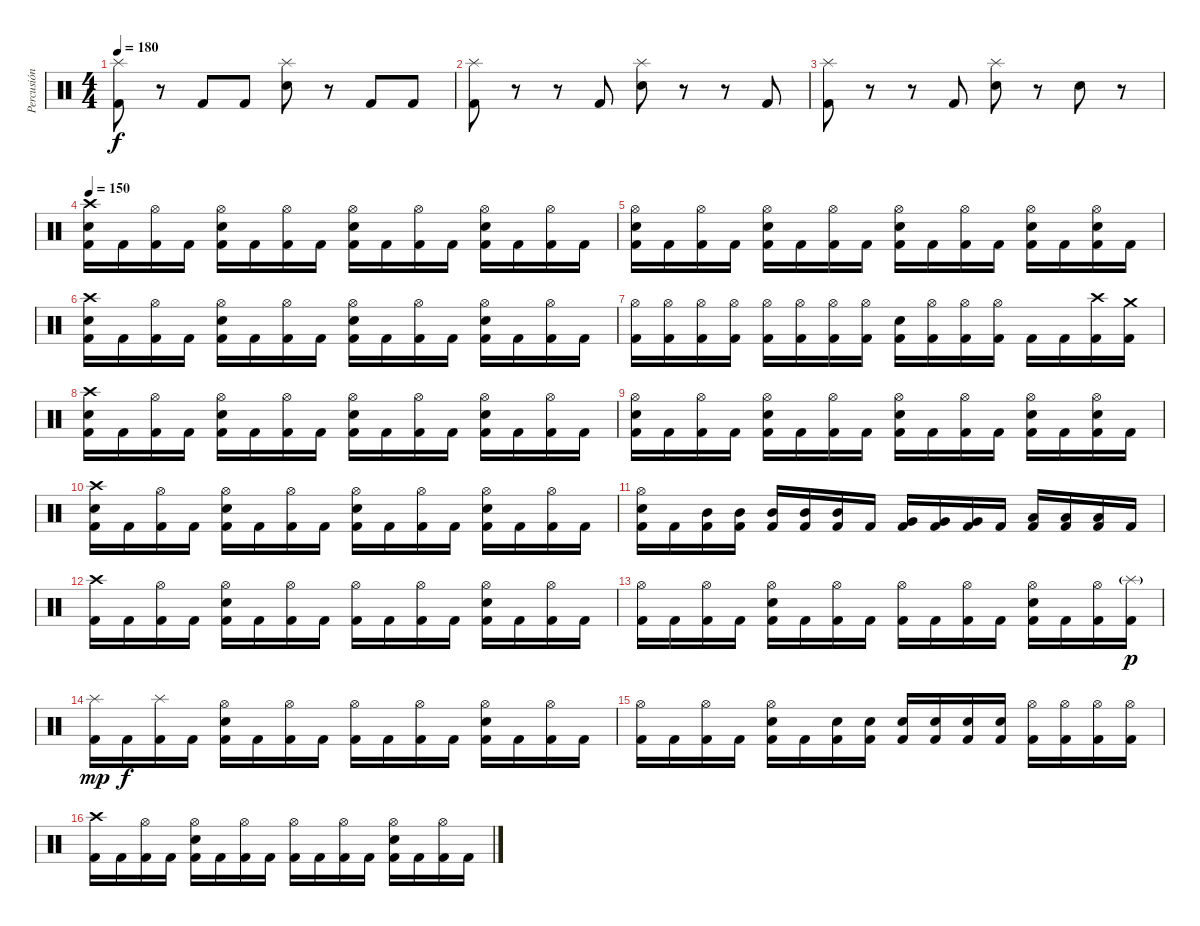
\track ("Percusión" "Percusión") {instrument percussion}
\staff {score}
\articulation defaults
\ts (4 4)
\tempo 180
\clef neutral
\ks c
("Splash (hit)" "Kick (hit) 2").8{dy f} r.8 "Kick (hit) 2".8 "Kick (hit) 2".8 ("Splash (hit)" "Snare (hit) 2").8 r.8 "Kick (hit) 2".8 "Kick (hit) 2".8 |
("Splash (hit)" "Kick (hit) 2").8 r.8 r.8 "Kick (hit) 2".8 ("Splash (hit)" "Snare (hit) 2").8 r.8 r.8 "Kick (hit) 2".8 |
("Splash (hit)" "Kick (hit) 2").8 r.8 r.8 "Kick (hit) 2".8 ("Splash (hit)" "Snare (hit) 2").8 r.8 "Snare (hit) 2".8 r.8 |
\tempo 150
("Crash high (hit)" "Snare (hit) 2" "Kick (hit) 2").16 "Kick (hit) 2".16 ("Hi-Hat (open)" "Kick (hit) 2").16 "Kick (hit) 2".16 ("Hi-Hat (open)" "Snare (hit) 2" "Kick (hit) 2").16 "Kick (hit) 2".16 ("Hi-Hat (open)" "Kick (hit) 2").16 "Kick (hit) 2".16 ("Hi-Hat (open)" "Snare (hit) 2" "Kick (hit) 2").16 "Kick (hit) 2".16 ("Hi-Hat (open)" "Kick (hit) 2").16 "Kick (hit) 2".16 ("Hi-Hat (open)" "Snare (hit) 2" "Kick (hit) 2").16 "Kick (hit) 2".16 ("Hi-Hat (open)" "Kick (hit) 2").16 "Kick (hit) 2".16 |
("Hi-Hat (open)" "Snare (hit) 2" "Kick (hit) 2").16 "Kick (hit) 2".16 ("Hi-Hat (open)" "Kick (hit) 2").16 "Kick (hit) 2".16 ("Hi-Hat (open)" "Snare (hit) 2" "Kick (hit) 2").16 "Kick (hit) 2".16 ("Hi-Hat (open)" "Kick (hit) 2").16 "Kick (hit) 2".16 ("Hi-Hat (open)" "Snare (hit) 2" "Kick (hit) 2").16 "Kick (hit) 2".16 ("Hi-Hat (open)" "Kick (hit) 2").16 "Kick (hit) 2".16 ("Hi-Hat (open)" "Snare (hit) 2" "Kick (hit) 2").16 "Kick (hit) 2".16 ("Hi-Hat (open)" "Snare (hit) 2" "Kick (hit) 2").16 "Kick (hit) 2".16 |
("Crash high (hit)" "Snare (hit) 2" "Kick (hit) 2").16 "Kick (hit) 2".16 ("Hi-Hat (open)" "Kick (hit) 2").16 "Kick (hit) 2".16 ("Hi-Hat (open)" "Snare (hit) 2" "Kick (hit) 2").16 "Kick (hit) 2".16 ("Hi-Hat (open)" "Kick (hit) 2").16 "Kick (hit) 2".16 ("Hi-Hat (open)" "Snare (hit) 2" "Kick (hit) 2").16 "Kick (hit) 2".16 ("Hi-Hat (open)" "Kick (hit) 2").16 "Kick (hit) 2".16 ("Hi-Hat (open)" "Snare (hit) 2" "Kick (hit) 2").16 "Kick (hit) 2".16 ("Hi-Hat (open)" "Kick (hit) 2").16 "Kick (hit) 2".16 |
("Hi-Hat (open)" "Kick (hit) 2").16 ("Hi-Hat (open)" "Kick (hit) 2").16 ("Hi-Hat (open)" "Kick (hit) 2").16 ("Hi-Hat (open)" "Kick (hit) 2").16 ("Hi-Hat (open)" "Kick (hit) 2").16 ("Hi-Hat (open)" "Kick (hit) 2").16 ("Hi-Hat (open)" "Kick (hit) 2").16 ("Hi-Hat (open)" "Kick (hit) 2").16 ("Snare (hit) 2" "Kick (hit) 2").16 ("Hi-Hat (open)" "Kick (hit) 2").16 ("Hi-Hat (open)" "Kick (hit) 2").16 ("Hi-Hat (open)" "Kick (hit) 2").16 "Kick (hit) 2".16 "Kick (hit) 2".16 ("Crash high (hit)" "Kick (hit) 2").16 ("Crash medium (hit)" "Kick (hit) 2").16 |
("Crash high (hit)" "Snare (hit) 2" "Kick (hit) 2").16 "Kick (hit) 2".16 ("Hi-Hat (open)" "Kick (hit) 2").16 "Kick (hit) 2".16 ("Hi-Hat (open)" "Snare (hit) 2" "Kick (hit) 2").16 "Kick (hit) 2".16 ("Hi-Hat (open)" "Kick (hit) 2").16 "Kick (hit) 2".16 ("Hi-Hat (open)" "Snare (hit) 2" "Kick (hit) 2").16 "Kick (hit) 2".16 ("Hi-Hat (open)" "Kick (hit) 2").16 "Kick (hit) 2".16 ("Hi-Hat (open)" "Snare (hit) 2" "Kick (hit) 2").16 "Kick (hit) 2".16 ("Hi-Hat (open)" "Kick (hit) 2").16 "Kick (hit) 2".16 |
("Hi-Hat (open)" "Snare (hit) 2" "Kick (hit) 2").16 "Kick (hit) 2".16 ("Hi-Hat (open)" "Kick (hit) 2").16 "Kick (hit) 2".16 ("Hi-Hat (open)" "Snare (hit) 2" "Kick (hit) 2").16 "Kick (hit) 2".16 ("Hi-Hat (open)" "Kick (hit) 2").16 "Kick (hit) 2".16 ("Hi-Hat (open)" "Snare (hit) 2" "Kick (hit) 2").16 "Kick (hit) 2".16 ("Hi-Hat (open)" "Kick (hit) 2").16 "Kick (hit) 2".16 ("Hi-Hat (open)" "Snare (hit) 2" "Kick (hit) 2").16 "Kick (hit) 2".16 ("Hi-Hat (open)" "Snare (hit) 2" "Kick (hit) 2").16 "Kick (hit) 2".16 |
("Crash high (hit)" "Snare (hit) 2" "Kick (hit) 2").16 "Kick (hit) 2".16 ("Hi-Hat (open)" "Kick (hit) 2").16 "Kick (hit) 2".16 ("Hi-Hat (open)" "Snare (hit) 2" "Kick (hit) 2").16 "Kick (hit) 2".16 ("Hi-Hat (open)" "Kick (hit) 2").16 "Kick (hit) 2".16 ("Hi-Hat (open)" "Snare (hit) 2" "Kick (hit) 2").16 "Kick (hit) 2".16 ("Hi-Hat (open)" "Kick (hit) 2").16 "Kick (hit) 2".16 ("Hi-Hat (open)" "Snare (hit) 2" "Kick (hit) 2").16 "Kick (hit) 2".16 ("Hi-Hat (open)" "Kick (hit) 2").16 "Kick (hit) 2".16 |
("Hi-Hat (open)" "Snare (hit) 2" "Kick (hit) 2").16 "Kick (hit) 2".16 ("Mid Tom (hit)" "Kick (hit) 2").16 ("Mid Tom (hit)" "Kick (hit) 2").16 ("Mid Tom (hit)" "Kick (hit) 2").16 ("Mid Tom (hit)" "Kick (hit) 2").16 ("Mid Tom (hit)" "Kick (hit) 2").16 "Kick (hit) 2".16 ("Very Low Tom (hit)" "Kick (hit) 2").16 ("Very Low Tom (hit)" "Kick (hit) 2").16 ("Very Low Tom (hit)" "Kick (hit) 2").16 "Kick (hit) 2".16 ("Low Floor Tom (hit)" "Kick (hit) 2").16 ("Low Floor Tom (hit)" "Kick (hit) 2").16 ("Low Floor Tom (hit)" "Kick (hit) 2").16 "Kick (hit) 2".16 |
("Crash high (hit)" "Kick (hit) 2").16 "Kick (hit) 2".16 ("Hi-Hat (open)" "Kick (hit) 2").16 "Kick (hit) 2".16 ("Hi-Hat (open)" "Snare (hit) 2" "Kick (hit) 2").16 "Kick (hit) 2".16 ("Hi-Hat (open)" "Kick (hit) 2").16 "Kick (hit) 2".16 ("Hi-Hat (open)" "Kick (hit) 2").16 "Kick (hit) 2".16 ("Hi-Hat (open)" "Kick (hit) 2").16 "Kick (hit) 2".16 ("Hi-Hat (open)" "Snare (hit) 2" "Kick (hit) 2").16 "Kick (hit) 2".16 ("Hi-Hat (open)" "Kick (hit) 2").16 "Kick (hit) 2".16 |
("Hi-Hat (open)" "Kick (hit) 2").16 "Kick (hit) 2".16 ("Hi-Hat (open)" "Kick (hit) 2").16 "Kick (hit) 2".16 ("Hi-Hat (open)" "Snare (hit) 2" "Kick (hit) 2").16 "Kick (hit) 2".16 ("Hi-Hat (open)" "Kick (hit) 2").16 "Kick (hit) 2".16 ("Hi-Hat (open)" "Kick (hit) 2").16 "Kick (hit) 2".16 ("Hi-Hat (open)" "Kick (hit) 2").16 "Kick (hit) 2".16 ("Hi-Hat (open)" "Snare (hit) 2" "Kick (hit) 2").16 "Kick (hit) 2".16 ("Hi-Hat (open)" "Kick (hit) 2").16 ("Splash (hit)"{g} "Kick (hit) 2").16{dy p} |
("Splash (hit)" "Kick (hit) 2").16{dy mp} "Kick (hit) 2".16{dy f} ("Splash (hit)" "Kick (hit) 2").16 "Kick (hit) 2".16 ("Hi-Hat (open)" "Snare (hit) 2" "Kick (hit) 2").16 "Kick (hit) 2".16 ("Hi-Hat (open)" "Kick (hit) 2").16 "Kick (hit) 2".16 ("Hi-Hat (open)" "Kick (hit) 2").16 "Kick (hit) 2".16 ("Hi-Hat (open)" "Kick (hit) 2").16 "Kick (hit) 2".16 ("Hi-Hat (open)" "Snare (hit) 2" "Kick (hit) 2").16 "Kick (hit) 2".16 ("Hi-Hat (open)" "Kick (hit) 2").16 "Kick (hit) 2".16 |
("Hi-Hat (open)" "Kick (hit) 2").16 "Kick (hit) 2".16 ("Hi-Hat (open)" "Kick (hit) 2").16 "Kick (hit) 2".16 ("Hi-Hat (open)" "Snare (hit) 2" "Kick (hit) 2").16 "Kick (hit) 2".16 ("Snare (hit) 2" "Kick (hit) 2").16 ("Snare (hit) 2" "Kick (hit) 2").16 ("Snare (hit) 2" "Kick (hit) 2").16 ("Snare (hit) 2" "Kick (hit) 2").16 ("Snare (hit) 2" "Kick (hit) 2").16 ("Snare (hit) 2" "Kick (hit) 2").16 ("Hi-Hat (open)" "Kick (hit) 2").16 ("Hi-Hat (open)" "Kick (hit) 2").16 ("Hi-Hat (open)" "Kick (hit) 2").16 ("Hi-Hat (open)" "Kick (hit) 2").16 |
("Crash high (hit)" "Kick (hit) 2").16 "Kick (hit) 2".16 ("Hi-Hat (open)" "Kick (hit) 2").16 "Kick (hit) 2".16 ("Hi-Hat (open)" "Snare (hit) 2" "Kick (hit) 2").16 "Kick (hit) 2".16 ("Hi-Hat (open)" "Kick (hit) 2").16 "Kick (hit) 2".16 ("Hi-Hat (open)" "Kick (hit) 2").16 "Kick (hit) 2".16 ("Hi-Hat (open)" "Kick (hit) 2").16 "Kick (hit) 2".16 ("Hi-Hat (open)" "Snare (hit) 2" "Kick (hit) 2").16 "Kick (hit) 2".16 ("Hi-Hat (open)" "Kick (hit) 2").16 "Kick (hit) 2".16
